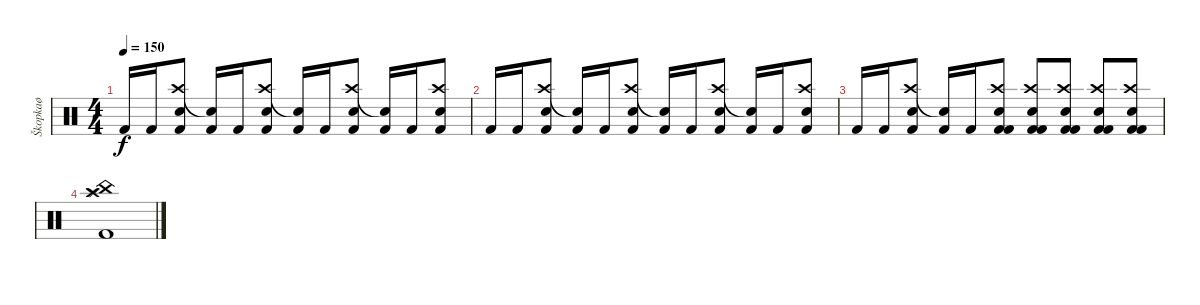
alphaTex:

\track ("Škopkaø" "Škopkaø") {instrument percussion}
\staff {score}
\articulation defaults
\ts (4 4)
\tempo 150
\clef neutral
\ks c "Kick (hit) 2".16{dy f} "Kick (hit) 2".16
("Crash high (hit)" "Electric Snare (hit)" "Kick (hit) 2").8 ("Snare (hit)"{t} "Kick (hit) 2").16 "Kick (hit) 2".16 ("Crash high (hit)" "Electric Snare (hit)" "Kick (hit) 2").8 ("Snare (hit)"{t} "Kick (hit) 2").16 "Kick (hit) 2".16 ("Crash high (hit)" "Electric Snare (hit)" "Kick (hit) 2").8 ("Snare (hit)"{t} "Kick (hit) 2").16 "Kick (hit) 2".16 ("Crash high (hit)" "Electric Snare (hit)" "Kick (hit) 2").8 |
"Kick (hit) 2".16 "Kick (hit) 2".16 ("Crash high (hit)" "Electric Snare (hit)" "Kick (hit) 2").8 ("Snare (hit)"{t} "Kick (hit) 2").16 "Kick (hit) 2".16 ("Crash high (hit)" "Electric Snare (hit)" "Kick (hit) 2").8 ("Snare (hit)"{t} "Kick (hit) 2").16 "Kick (hit) 2".16 ("Crash high (hit)" "Electric Snare (hit)" "Kick (hit) 2").8 ("Snare (hit)"{t} "Kick (hit) 2").16 "Kick (hit) 2".16 ("Crash high (hit)" "Electric Snare (hit)" "Kick (hit) 2").8 |
"Kick (hit) 2".16 "Kick (hit) 2".16 ("Crash high (hit)" "Electric Snare (hit)" "Kick (hit) 2").8 ("Snare (hit)"{t} "Kick (hit) 2").16 "Kick (hit) 2".16 ("Crash high (hit)" "Electric Snare (hit)" "Kick (hit) 2" "Kick (hit) 2").8 ("Crash high (hit)" "Electric Snare (hit)" "Kick (hit) 2" "Kick (hit) 2").8 ("Crash high (hit)" "Electric Snare (hit)" "Kick (hit) 2" "Kick (hit) 2").8 ("Crash high (hit)" "Electric Snare (hit)" "Kick (hit) 2" "Kick (hit) 2").8 ("Crash high (hit)" "Electric Snare (hit)" "Kick (hit) 2" "Kick (hit) 2").8 |
("Crash high (hit)" "Splash (hit)" "China (hit)" "Kick (hit) 2").1
